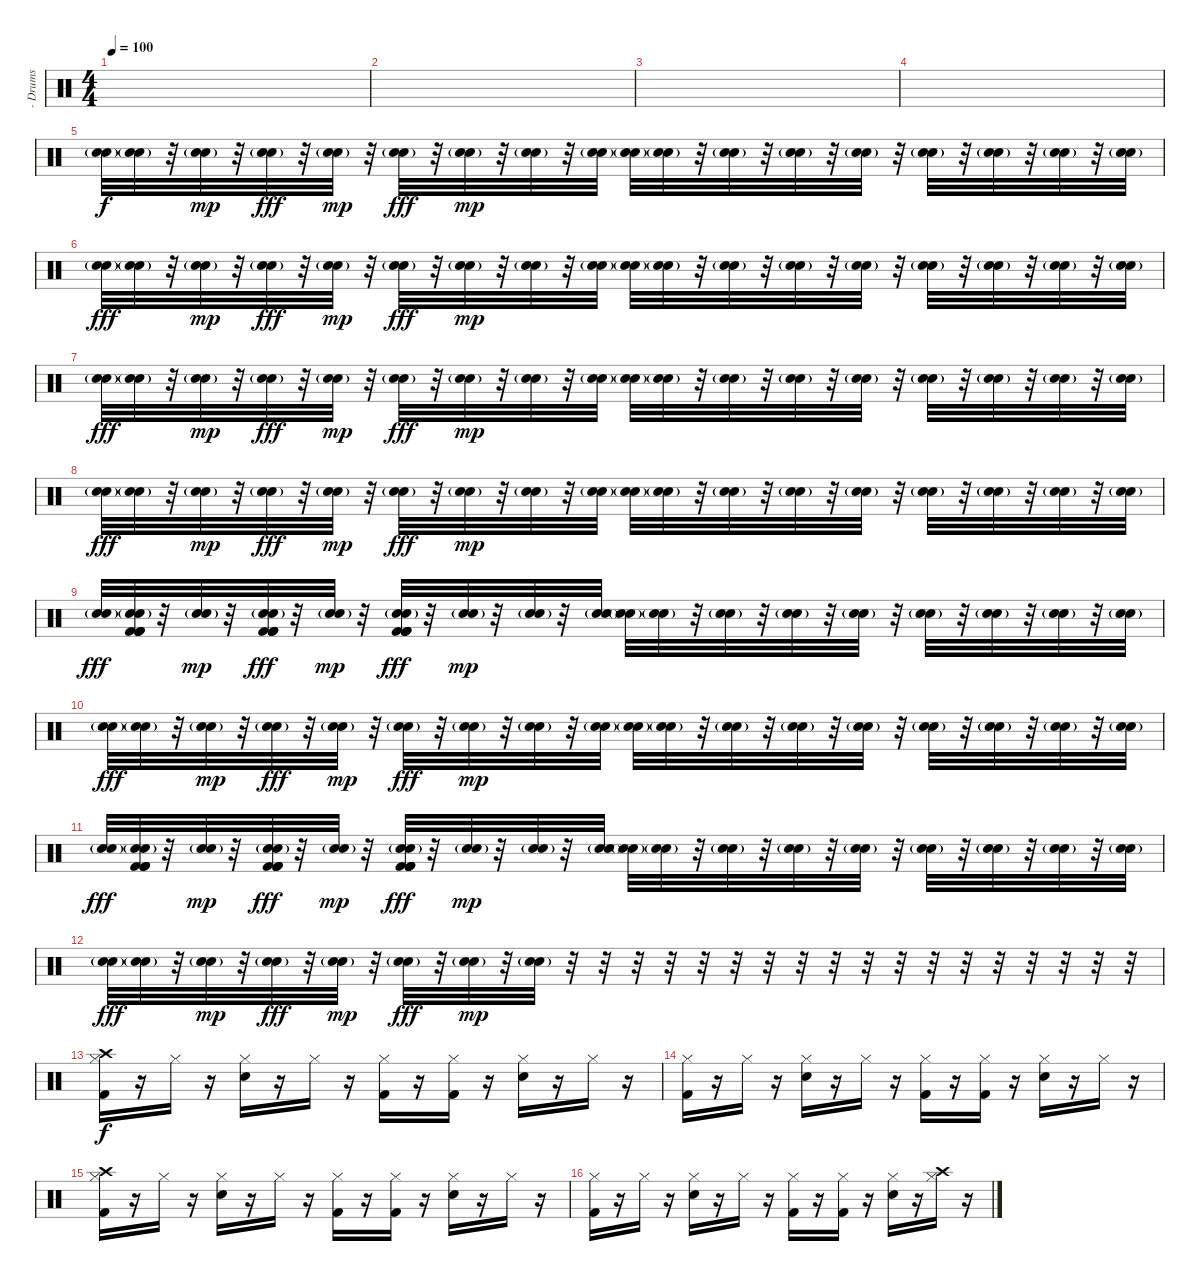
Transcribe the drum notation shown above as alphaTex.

\track ("- Drums" "- Drums") {instrument percussion}
\staff {score}
\articulation defaults
\ts (4 4)
\tempo 100
\clef neutral
\ks c
|
|
|
|
("Snare (hit) 2"{g} "Electric Snare (hit)").32 ("Snare (hit) 2"{g} "Electric Snare (hit)").32 r.32 ("Snare (hit) 2"{g} "Electric Snare (hit)").32{dy mp} r.32 ("Snare (hit) 2"{g} "Electric Snare (hit)").32{dy fff} r.32 ("Snare (hit) 2"{g} "Electric Snare (hit)").32{dy mp} r.32 ("Snare (hit) 2"{g} "Electric Snare (hit)").32{dy fff} r.32 ("Snare (hit) 2"{g} "Electric Snare (hit)").32{dy mp} r.32 ("Snare (hit) 2"{g} "Electric Snare (hit)").32 r.32 ("Snare (hit) 2"{g} "Electric Snare (hit)").32 ("Snare (hit) 2"{g} "Electric Snare (hit)").32 ("Snare (hit) 2"{g} "Electric Snare (hit)").32 r.32 ("Snare (hit) 2"{g} "Electric Snare (hit)").32 r.32 ("Snare (hit) 2"{g} "Electric Snare (hit)").32 r.32 ("Snare (hit) 2"{g} "Electric Snare (hit)").32 r.32 ("Snare (hit) 2"{g} "Electric Snare (hit)").32 r.32 ("Snare (hit) 2"{g} "Electric Snare (hit)").32 r.32 ("Snare (hit) 2"{g} "Electric Snare (hit)").32 r.32 ("Snare (hit) 2"{g} "Electric Snare (hit)").32 |
("Snare (hit) 2"{g} "Electric Snare (hit)").32{dy fff} ("Snare (hit) 2"{g} "Electric Snare (hit)").32 r.32 ("Snare (hit) 2"{g} "Electric Snare (hit)").32{dy mp} r.32 ("Snare (hit) 2"{g} "Electric Snare (hit)").32{dy fff} r.32 ("Snare (hit) 2"{g} "Electric Snare (hit)").32{dy mp} r.32 ("Snare (hit) 2"{g} "Electric Snare (hit)").32{dy fff} r.32 ("Snare (hit) 2"{g} "Electric Snare (hit)").32{dy mp} r.32 ("Snare (hit) 2"{g} "Electric Snare (hit)").32 r.32 ("Snare (hit) 2"{g} "Electric Snare (hit)").32 ("Snare (hit) 2"{g} "Electric Snare (hit)").32 ("Snare (hit) 2"{g} "Electric Snare (hit)").32 r.32 ("Snare (hit) 2"{g} "Electric Snare (hit)").32 r.32 ("Snare (hit) 2"{g} "Electric Snare (hit)").32 r.32 ("Snare (hit) 2"{g} "Electric Snare (hit)").32 r.32 ("Snare (hit) 2"{g} "Electric Snare (hit)").32 r.32 ("Snare (hit) 2"{g} "Electric Snare (hit)").32 r.32 ("Snare (hit) 2"{g} "Electric Snare (hit)").32 r.32 ("Snare (hit) 2"{g} "Electric Snare (hit)").32 |
("Snare (hit) 2"{g} "Electric Snare (hit)").32{dy fff} ("Snare (hit) 2"{g} "Electric Snare (hit)").32 r.32 ("Snare (hit) 2"{g} "Electric Snare (hit)").32{dy mp} r.32 ("Snare (hit) 2"{g} "Electric Snare (hit)").32{dy fff} r.32 ("Snare (hit) 2"{g} "Electric Snare (hit)").32{dy mp} r.32 ("Snare (hit) 2"{g} "Electric Snare (hit)").32{dy fff} r.32 ("Snare (hit) 2"{g} "Electric Snare (hit)").32{dy mp} r.32 ("Snare (hit) 2"{g} "Electric Snare (hit)").32 r.32 ("Snare (hit) 2"{g} "Electric Snare (hit)").32 ("Snare (hit) 2"{g} "Electric Snare (hit)").32 ("Snare (hit) 2"{g} "Electric Snare (hit)").32 r.32 ("Snare (hit) 2"{g} "Electric Snare (hit)").32 r.32 ("Snare (hit) 2"{g} "Electric Snare (hit)").32 r.32 ("Snare (hit) 2"{g} "Electric Snare (hit)").32 r.32 ("Snare (hit) 2"{g} "Electric Snare (hit)").32 r.32 ("Snare (hit) 2"{g} "Electric Snare (hit)").32 r.32 ("Snare (hit) 2"{g} "Electric Snare (hit)").32 r.32 ("Snare (hit) 2"{g} "Electric Snare (hit)").32 |
("Snare (hit) 2"{g} "Electric Snare (hit)").32{dy fff} ("Snare (hit) 2"{g} "Electric Snare (hit)").32 r.32 ("Snare (hit) 2"{g} "Electric Snare (hit)").32{dy mp} r.32 ("Snare (hit) 2"{g} "Electric Snare (hit)").32{dy fff} r.32 ("Snare (hit) 2"{g} "Electric Snare (hit)").32{dy mp} r.32 ("Snare (hit) 2"{g} "Electric Snare (hit)").32{dy fff} r.32 ("Snare (hit) 2"{g} "Electric Snare (hit)").32{dy mp} r.32 ("Snare (hit) 2"{g} "Electric Snare (hit)").32 r.32 ("Snare (hit) 2"{g} "Electric Snare (hit)").32 ("Snare (hit) 2"{g} "Electric Snare (hit)").32 ("Snare (hit) 2"{g} "Electric Snare (hit)").32 r.32 ("Snare (hit) 2"{g} "Electric Snare (hit)").32 r.32 ("Snare (hit) 2"{g} "Electric Snare (hit)").32 r.32 ("Snare (hit) 2"{g} "Electric Snare (hit)").32 r.32 ("Snare (hit) 2"{g} "Electric Snare (hit)").32 r.32 ("Snare (hit) 2"{g} "Electric Snare (hit)").32 r.32 ("Snare (hit) 2"{g} "Electric Snare (hit)").32 r.32 ("Snare (hit) 2"{g} "Electric Snare (hit)").32 |
("Snare (hit) 2"{g} "Electric Snare (hit)").32{dy fff} ("Kick (hit) 2" "Kick (hit) 2" "Kick (hit) 2" "Kick (hit) 2" "Snare (hit) 2"{g} "Electric Snare (hit)").32 r.32 ("Snare (hit) 2"{g} "Electric Snare (hit)").32{dy mp} r.32 ("Kick (hit) 2" "Kick (hit) 2" "Kick (hit) 2" "Kick (hit) 2" "Snare (hit) 2"{g} "Electric Snare (hit)").32{dy fff} r.32 ("Snare (hit) 2"{g} "Electric Snare (hit)").32{dy mp} r.32 ("Kick (hit) 2" "Kick (hit) 2" "Kick (hit) 2" "Kick (hit) 2" "Snare (hit) 2"{g} "Electric Snare (hit)").32{dy fff} r.32 ("Snare (hit) 2"{g} "Electric Snare (hit)").32{dy mp} r.32 ("Snare (hit) 2"{g} "Electric Snare (hit)").32 r.32 ("Snare (hit) 2"{g} "Electric Snare (hit)").32 ("Snare (hit) 2"{g} "Electric Snare (hit)").32 ("Snare (hit) 2"{g} "Electric Snare (hit)").32 r.32 ("Snare (hit) 2"{g} "Electric Snare (hit)").32 r.32 ("Snare (hit) 2"{g} "Electric Snare (hit)").32 r.32 ("Snare (hit) 2"{g} "Electric Snare (hit)").32 r.32 ("Snare (hit) 2"{g} "Electric Snare (hit)").32 r.32 ("Snare (hit) 2"{g} "Electric Snare (hit)").32 r.32 ("Snare (hit) 2"{g} "Electric Snare (hit)").32 r.32 ("Snare (hit) 2"{g} "Electric Snare (hit)").32 |
("Snare (hit) 2"{g} "Electric Snare (hit)").32{dy fff} ("Snare (hit) 2"{g} "Electric Snare (hit)").32 r.32 ("Snare (hit) 2"{g} "Electric Snare (hit)").32{dy mp} r.32 ("Snare (hit) 2"{g} "Electric Snare (hit)").32{dy fff} r.32 ("Snare (hit) 2"{g} "Electric Snare (hit)").32{dy mp} r.32 ("Snare (hit) 2"{g} "Electric Snare (hit)").32{dy fff} r.32 ("Snare (hit) 2"{g} "Electric Snare (hit)").32{dy mp} r.32 ("Snare (hit) 2"{g} "Electric Snare (hit)").32 r.32 ("Snare (hit) 2"{g} "Electric Snare (hit)").32 ("Snare (hit) 2"{g} "Electric Snare (hit)").32 ("Snare (hit) 2"{g} "Electric Snare (hit)").32 r.32 ("Snare (hit) 2"{g} "Electric Snare (hit)").32 r.32 ("Snare (hit) 2"{g} "Electric Snare (hit)").32 r.32 ("Snare (hit) 2"{g} "Electric Snare (hit)").32 r.32 ("Snare (hit) 2"{g} "Electric Snare (hit)").32 r.32 ("Snare (hit) 2"{g} "Electric Snare (hit)").32 r.32 ("Snare (hit) 2"{g} "Electric Snare (hit)").32 r.32 ("Snare (hit) 2"{g} "Electric Snare (hit)").32 |
("Snare (hit) 2"{g} "Electric Snare (hit)").32{dy fff} ("Kick (hit) 2" "Kick (hit) 2" "Kick (hit) 2" "Kick (hit) 2" "Snare (hit) 2"{g} "Electric Snare (hit)").32 r.32 ("Snare (hit) 2"{g} "Electric Snare (hit)").32{dy mp} r.32 ("Kick (hit) 2" "Kick (hit) 2" "Kick (hit) 2" "Kick (hit) 2" "Snare (hit) 2"{g} "Electric Snare (hit)").32{dy fff} r.32 ("Snare (hit) 2"{g} "Electric Snare (hit)").32{dy mp} r.32 ("Kick (hit) 2" "Kick (hit) 2" "Kick (hit) 2" "Kick (hit) 2" "Snare (hit) 2"{g} "Electric Snare (hit)").32{dy fff} r.32 ("Snare (hit) 2"{g} "Electric Snare (hit)").32{dy mp} r.32 ("Snare (hit) 2"{g} "Electric Snare (hit)").32 r.32 ("Snare (hit) 2"{g} "Electric Snare (hit)").32 ("Snare (hit) 2"{g} "Electric Snare (hit)").32 ("Snare (hit) 2"{g} "Electric Snare (hit)").32 r.32 ("Snare (hit) 2"{g} "Electric Snare (hit)").32 r.32 ("Snare (hit) 2"{g} "Electric Snare (hit)").32 r.32 ("Snare (hit) 2"{g} "Electric Snare (hit)").32 r.32 ("Snare (hit) 2"{g} "Electric Snare (hit)").32 r.32 ("Snare (hit) 2"{g} "Electric Snare (hit)").32 r.32 ("Snare (hit) 2"{g} "Electric Snare (hit)").32 r.32 ("Snare (hit) 2"{g} "Electric Snare (hit)").32 |
("Snare (hit) 2"{g} "Electric Snare (hit)").32{dy fff} ("Snare (hit) 2"{g} "Electric Snare (hit)").32 r.32 ("Snare (hit) 2"{g} "Electric Snare (hit)").32{dy mp} r.32 ("Snare (hit) 2"{g} "Electric Snare (hit)").32{dy fff} r.32 ("Snare (hit) 2"{g} "Electric Snare (hit)").32{dy mp} r.32 ("Snare (hit) 2"{g} "Electric Snare (hit)").32{dy fff} r.32 ("Snare (hit) 2"{g} "Electric Snare (hit)").32{dy mp} r.32 ("Snare (hit) 2"{g} "Electric Snare (hit)").32 r.32 r.32 r.32 r.32 r.32 r.32 r.32 r.32 r.32 r.32 r.32 r.32 r.32 r.32 r.32 r.32 r.32 r.32 |
("Hi-Hat (closed)" "Crash high (hit)" "Kick (hit) 2").16{dy f} r.16 "Hi-Hat (closed)".16 r.16 ("Hi-Hat (closed)" "Electric Snare (hit)").16 r.16 "Hi-Hat (closed)".16 r.16 ("Hi-Hat (closed)" "Kick (hit) 2").16 r.16 ("Hi-Hat (closed)" "Kick (hit) 2").16 r.16 ("Hi-Hat (closed)" "Electric Snare (hit)").16 r.16 "Hi-Hat (closed)".16 r.16 |
("Hi-Hat (closed)" "Kick (hit) 2").16 r.16 "Hi-Hat (closed)".16 r.16 ("Hi-Hat (closed)" "Electric Snare (hit)").16 r.16 "Hi-Hat (closed)".16 r.16 ("Hi-Hat (closed)" "Kick (hit) 2").16 r.16 ("Hi-Hat (closed)" "Kick (hit) 2").16 r.16 ("Hi-Hat (closed)" "Electric Snare (hit)").16 r.16 "Hi-Hat (closed)".16 r.16 |
("Hi-Hat (closed)" "Crash high (hit)" "Kick (hit) 2").16 r.16 "Hi-Hat (closed)".16 r.16 ("Hi-Hat (closed)" "Electric Snare (hit)").16 r.16 "Hi-Hat (closed)".16 r.16 ("Hi-Hat (closed)" "Kick (hit) 2").16 r.16 ("Hi-Hat (closed)" "Kick (hit) 2").16 r.16 ("Hi-Hat (closed)" "Electric Snare (hit)").16 r.16 "Hi-Hat (closed)".16 r.16 |
("Hi-Hat (closed)" "Kick (hit) 2").16 r.16 "Hi-Hat (closed)".16 r.16 ("Hi-Hat (closed)" "Electric Snare (hit)").16 r.16 "Hi-Hat (closed)".16 r.16 ("Hi-Hat (closed)" "Kick (hit) 2").16 r.16 ("Hi-Hat (closed)" "Kick (hit) 2").16 r.16 ("Hi-Hat (closed)" "Electric Snare (hit)").16 r.16 ("Hi-Hat (closed)" "Crash high (hit)").16 r.16
